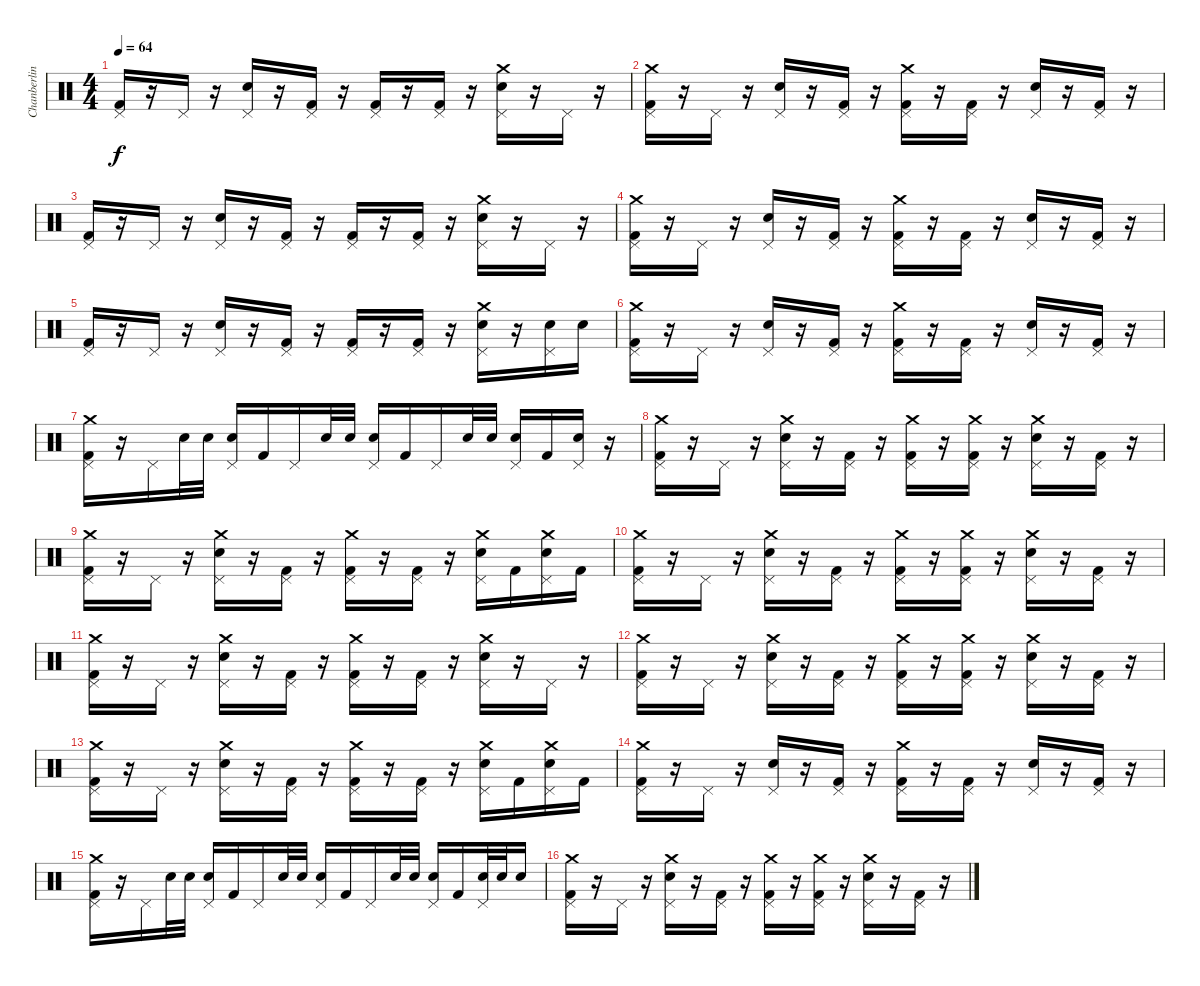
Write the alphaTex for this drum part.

\track ("Chanberlin" "Chanberlin") {instrument percussion}
\staff {score}
\articulation defaults
\ts (4 4)
\tempo 64
\clef neutral
\ks c
("Pedal Hi-Hat (hit)" "Kick (hit) 2").16{dy f} r.16 "Pedal Hi-Hat (hit)".16 r.16 ("Pedal Hi-Hat (hit)" "Snare (hit) 2").16 r.16 ("Pedal Hi-Hat (hit)" "Kick (hit) 2").16 r.16 ("Pedal Hi-Hat (hit)" "Kick (hit) 2").16 r.16 ("Pedal Hi-Hat (hit)" "Kick (hit) 2").16 r.16 ("Crash medium (hit)" "Pedal Hi-Hat (hit)" "Snare (hit) 2").16 r.16 "Pedal Hi-Hat (hit)".16 r.16 |
("Crash medium (hit)" "Pedal Hi-Hat (hit)" "Kick (hit) 2").16 r.16 "Pedal Hi-Hat (hit)".16 r.16 ("Pedal Hi-Hat (hit)" "Snare (hit) 2").16 r.16 ("Pedal Hi-Hat (hit)" "Kick (hit) 2").16 r.16 ("Crash medium (hit)" "Pedal Hi-Hat (hit)" "Kick (hit) 2").16 r.16 ("Pedal Hi-Hat (hit)" "Kick (hit) 2").16 r.16 ("Pedal Hi-Hat (hit)" "Snare (hit) 2").16 r.16 ("Pedal Hi-Hat (hit)" "Kick (hit) 2").16 r.16 |
("Pedal Hi-Hat (hit)" "Kick (hit) 2").16 r.16 "Pedal Hi-Hat (hit)".16 r.16 ("Pedal Hi-Hat (hit)" "Snare (hit) 2").16 r.16 ("Pedal Hi-Hat (hit)" "Kick (hit) 2").16 r.16 ("Pedal Hi-Hat (hit)" "Kick (hit) 2").16 r.16 ("Pedal Hi-Hat (hit)" "Kick (hit) 2").16 r.16 ("Crash medium (hit)" "Pedal Hi-Hat (hit)" "Snare (hit) 2").16 r.16 "Pedal Hi-Hat (hit)".16 r.16 |
("Crash medium (hit)" "Pedal Hi-Hat (hit)" "Kick (hit) 2").16 r.16 "Pedal Hi-Hat (hit)".16 r.16 ("Pedal Hi-Hat (hit)" "Snare (hit) 2").16 r.16 ("Pedal Hi-Hat (hit)" "Kick (hit) 2").16 r.16 ("Crash medium (hit)" "Pedal Hi-Hat (hit)" "Kick (hit) 2").16 r.16 ("Pedal Hi-Hat (hit)" "Kick (hit) 2").16 r.16 ("Pedal Hi-Hat (hit)" "Snare (hit) 2").16 r.16 ("Pedal Hi-Hat (hit)" "Kick (hit) 2").16 r.16 |
("Pedal Hi-Hat (hit)" "Kick (hit) 2").16 r.16 "Pedal Hi-Hat (hit)".16 r.16 ("Pedal Hi-Hat (hit)" "Snare (hit) 2").16 r.16 ("Pedal Hi-Hat (hit)" "Kick (hit) 2").16 r.16 ("Pedal Hi-Hat (hit)" "Kick (hit) 2").16 r.16 ("Pedal Hi-Hat (hit)" "Kick (hit) 2").16 r.16 ("Crash medium (hit)" "Pedal Hi-Hat (hit)" "Snare (hit) 2").16 r.16 ("Pedal Hi-Hat (hit)" "Snare (hit) 2").16 "Snare (hit) 2".16 |
("Crash medium (hit)" "Pedal Hi-Hat (hit)" "Kick (hit) 2").16 r.16 "Pedal Hi-Hat (hit)".16 r.16 ("Pedal Hi-Hat (hit)" "Snare (hit) 2").16 r.16 ("Pedal Hi-Hat (hit)" "Kick (hit) 2").16 r.16 ("Crash medium (hit)" "Pedal Hi-Hat (hit)" "Kick (hit) 2").16 r.16 ("Pedal Hi-Hat (hit)" "Kick (hit) 2").16 r.16 ("Pedal Hi-Hat (hit)" "Snare (hit) 2").16 r.16 ("Pedal Hi-Hat (hit)" "Kick (hit) 2").16 r.16 |
("Crash medium (hit)" "Pedal Hi-Hat (hit)" "Kick (hit) 2").16 r.16 "Pedal Hi-Hat (hit)".16 "Snare (hit) 2".32 "Snare (hit) 2".32 ("Pedal Hi-Hat (hit)" "Snare (hit) 2").16 "Kick (hit) 2".16 "Pedal Hi-Hat (hit)".16 "Snare (hit) 2".32 "Snare (hit) 2".32 ("Pedal Hi-Hat (hit)" "Snare (hit) 2").16 "Kick (hit) 2".16 "Pedal Hi-Hat (hit)".16 "Snare (hit) 2".32 "Snare (hit) 2".32 ("Pedal Hi-Hat (hit)" "Snare (hit) 2").16 "Kick (hit) 2".16 ("Pedal Hi-Hat (hit)" "Snare (hit) 2").16 r.16 |
("Crash medium (hit)" "Pedal Hi-Hat (hit)" "Kick (hit) 2").16 r.16 "Pedal Hi-Hat (hit)".16 r.16 ("Crash medium (hit)" "Pedal Hi-Hat (hit)" "Snare (hit) 2").16 r.16 ("Pedal Hi-Hat (hit)" "Kick (hit) 2").16 r.16 ("Crash medium (hit)" "Pedal Hi-Hat (hit)" "Kick (hit) 2").16 r.16 ("Crash medium (hit)" "Pedal Hi-Hat (hit)" "Kick (hit) 2").16 r.16 ("Crash medium (hit)" "Pedal Hi-Hat (hit)" "Snare (hit) 2").16 r.16 ("Pedal Hi-Hat (hit)" "Kick (hit) 2").16 r.16 |
("Crash medium (hit)" "Pedal Hi-Hat (hit)" "Kick (hit) 2").16 r.16 "Pedal Hi-Hat (hit)".16 r.16 ("Crash medium (hit)" "Pedal Hi-Hat (hit)" "Snare (hit) 2").16 r.16 ("Pedal Hi-Hat (hit)" "Kick (hit) 2").16 r.16 ("Crash medium (hit)" "Pedal Hi-Hat (hit)" "Kick (hit) 2").16 r.16 ("Pedal Hi-Hat (hit)" "Kick (hit) 2").16 r.16 ("Crash medium (hit)" "Pedal Hi-Hat (hit)" "Snare (hit) 2").16 "Kick (hit) 2".16 ("Crash medium (hit)" "Pedal Hi-Hat (hit)" "Snare (hit) 2").16 "Kick (hit) 2".16 |
("Crash medium (hit)" "Pedal Hi-Hat (hit)" "Kick (hit) 2").16 r.16 "Pedal Hi-Hat (hit)".16 r.16 ("Crash medium (hit)" "Pedal Hi-Hat (hit)" "Snare (hit) 2").16 r.16 ("Pedal Hi-Hat (hit)" "Kick (hit) 2").16 r.16 ("Crash medium (hit)" "Pedal Hi-Hat (hit)" "Kick (hit) 2").16 r.16 ("Crash medium (hit)" "Pedal Hi-Hat (hit)" "Kick (hit) 2").16 r.16 ("Crash medium (hit)" "Pedal Hi-Hat (hit)" "Snare (hit) 2").16 r.16 ("Pedal Hi-Hat (hit)" "Kick (hit) 2").16 r.16 |
("Crash medium (hit)" "Pedal Hi-Hat (hit)" "Kick (hit) 2").16 r.16 "Pedal Hi-Hat (hit)".16 r.16 ("Crash medium (hit)" "Pedal Hi-Hat (hit)" "Snare (hit) 2").16 r.16 ("Pedal Hi-Hat (hit)" "Kick (hit) 2").16 r.16 ("Crash medium (hit)" "Pedal Hi-Hat (hit)" "Kick (hit) 2").16 r.16 ("Pedal Hi-Hat (hit)" "Kick (hit) 2").16 r.16 ("Crash medium (hit)" "Pedal Hi-Hat (hit)" "Snare (hit) 2").16 r.16 "Pedal Hi-Hat (hit)".16 r.16 |
("Crash medium (hit)" "Pedal Hi-Hat (hit)" "Kick (hit) 2").16 r.16 "Pedal Hi-Hat (hit)".16 r.16 ("Crash medium (hit)" "Pedal Hi-Hat (hit)" "Snare (hit) 2").16 r.16 ("Pedal Hi-Hat (hit)" "Kick (hit) 2").16 r.16 ("Crash medium (hit)" "Pedal Hi-Hat (hit)" "Kick (hit) 2").16 r.16 ("Crash medium (hit)" "Pedal Hi-Hat (hit)" "Kick (hit) 2").16 r.16 ("Crash medium (hit)" "Pedal Hi-Hat (hit)" "Snare (hit) 2").16 r.16 ("Pedal Hi-Hat (hit)" "Kick (hit) 2").16 r.16 |
("Crash medium (hit)" "Pedal Hi-Hat (hit)" "Kick (hit) 2").16 r.16 "Pedal Hi-Hat (hit)".16 r.16 ("Crash medium (hit)" "Pedal Hi-Hat (hit)" "Snare (hit) 2").16 r.16 ("Pedal Hi-Hat (hit)" "Kick (hit) 2").16 r.16 ("Crash medium (hit)" "Pedal Hi-Hat (hit)" "Kick (hit) 2").16 r.16 ("Pedal Hi-Hat (hit)" "Kick (hit) 2").16 r.16 ("Crash medium (hit)" "Pedal Hi-Hat (hit)" "Snare (hit) 2").16 "Kick (hit) 2".16 ("Crash medium (hit)" "Pedal Hi-Hat (hit)" "Snare (hit) 2").16 "Kick (hit) 2".16 |
("Crash medium (hit)" "Pedal Hi-Hat (hit)" "Kick (hit) 2").16 r.16 "Pedal Hi-Hat (hit)".16 r.16 ("Pedal Hi-Hat (hit)" "Snare (hit) 2").16 r.16 ("Pedal Hi-Hat (hit)" "Kick (hit) 2").16 r.16 ("Crash medium (hit)" "Pedal Hi-Hat (hit)" "Kick (hit) 2").16 r.16 ("Pedal Hi-Hat (hit)" "Kick (hit) 2").16 r.16 ("Pedal Hi-Hat (hit)" "Snare (hit) 2").16 r.16 ("Pedal Hi-Hat (hit)" "Kick (hit) 2").16 r.16 |
("Crash medium (hit)" "Pedal Hi-Hat (hit)" "Kick (hit) 2").16 r.16 "Pedal Hi-Hat (hit)".16 "Snare (hit) 2".32 "Snare (hit) 2".32 ("Pedal Hi-Hat (hit)" "Snare (hit) 2").16 "Kick (hit) 2".16 "Pedal Hi-Hat (hit)".16 "Snare (hit) 2".32 "Snare (hit) 2".32 ("Pedal Hi-Hat (hit)" "Snare (hit) 2").16 "Kick (hit) 2".16 "Pedal Hi-Hat (hit)".16 "Snare (hit) 2".32 "Snare (hit) 2".32 ("Pedal Hi-Hat (hit)" "Snare (hit) 2").16 "Kick (hit) 2".16 ("Pedal Hi-Hat (hit)" "Snare (hit) 2").32 "Snare (hit) 2".32 "Snare (hit) 2".16 |
("Crash medium (hit)" "Pedal Hi-Hat (hit)" "Kick (hit) 2").16 r.16 "Pedal Hi-Hat (hit)".16 r.16 ("Crash medium (hit)" "Pedal Hi-Hat (hit)" "Snare (hit) 2").16 r.16 ("Pedal Hi-Hat (hit)" "Kick (hit) 2").16 r.16 ("Crash medium (hit)" "Pedal Hi-Hat (hit)" "Kick (hit) 2").16 r.16 ("Crash medium (hit)" "Pedal Hi-Hat (hit)" "Kick (hit) 2").16 r.16 ("Crash medium (hit)" "Pedal Hi-Hat (hit)" "Snare (hit) 2").16 r.16 ("Pedal Hi-Hat (hit)" "Kick (hit) 2").16 r.16
